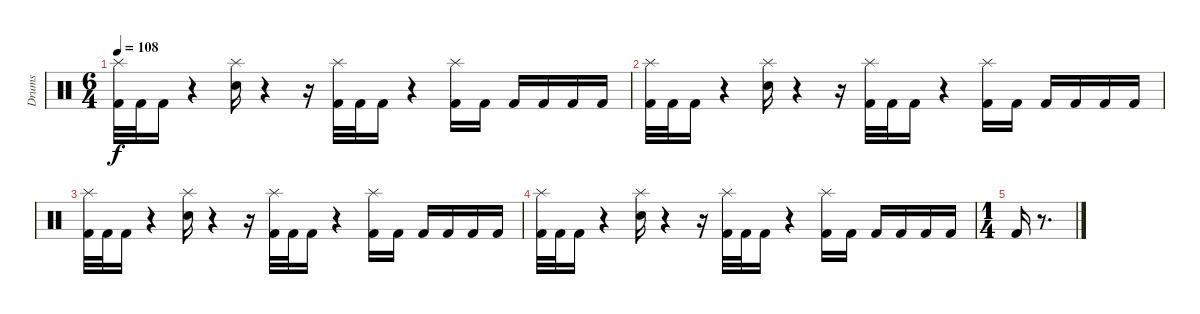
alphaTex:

\track ("Drums" "Drums") {instrument percussion}
\staff {score}
\articulation defaults
\ts (6 4)
\tempo 108
\clef neutral
\ks c
("Splash (hit)" "Kick (hit) 2").32{dy f} "Kick (hit) 2".32 "Kick (hit) 2".16 r.4 ("Splash (hit)" "Snare (hit) 2").16 r.4 r.16 ("Splash (hit)" "Kick (hit) 2").32 "Kick (hit) 2".32 "Kick (hit) 2".16 r.4 ("Splash (hit)" "Kick (hit) 2").16 "Kick (hit) 2".16 "Kick (hit) 2".16 "Kick (hit) 2".16 "Kick (hit) 2".16 "Kick (hit) 2".16 |
("Splash (hit)" "Kick (hit) 2").32 "Kick (hit) 2".32 "Kick (hit) 2".16 r.4 ("Splash (hit)" "Snare (hit) 2").16 r.4 r.16 ("Splash (hit)" "Kick (hit) 2").32 "Kick (hit) 2".32 "Kick (hit) 2".16 r.4 ("Splash (hit)" "Kick (hit) 2").16 "Kick (hit) 2".16 "Kick (hit) 2".16 "Kick (hit) 2".16 "Kick (hit) 2".16 "Kick (hit) 2".16 |
("Splash (hit)" "Kick (hit) 2").32 "Kick (hit) 2".32 "Kick (hit) 2".16 r.4 ("Splash (hit)" "Snare (hit) 2").16 r.4 r.16 ("Splash (hit)" "Kick (hit) 2").32 "Kick (hit) 2".32 "Kick (hit) 2".16 r.4 ("Splash (hit)" "Kick (hit) 2").16 "Kick (hit) 2".16 "Kick (hit) 2".16 "Kick (hit) 2".16 "Kick (hit) 2".16 "Kick (hit) 2".16 |
("Splash (hit)" "Kick (hit) 2").32 "Kick (hit) 2".32 "Kick (hit) 2".16 r.4 ("Splash (hit)" "Snare (hit) 2").16 r.4 r.16 ("Splash (hit)" "Kick (hit) 2").32 "Kick (hit) 2".32 "Kick (hit) 2".16 r.4 ("Splash (hit)" "Kick (hit) 2").16 "Kick (hit) 2".16 "Kick (hit) 2".16 "Kick (hit) 2".16 "Kick (hit) 2".16 "Kick (hit) 2".16 |
\ts (1 4)
"Kick (hit) 2".16 r.8{d}
